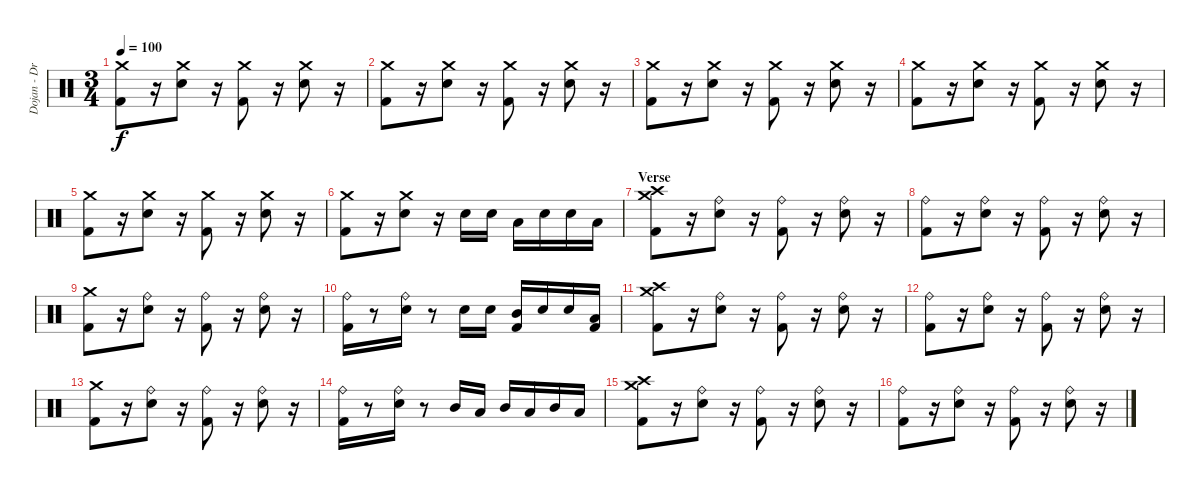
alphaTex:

\track ("Dojan - Drums" "Dojan - Dr") {instrument percussion}
\staff {score}
\articulation defaults
\ts (3 4)
\tempo 100
\clef neutral
\ks c
("Crash medium (hit)" "Kick (hit) 2").8{dy f} r.16 ("Crash medium (hit)" "Snare (hit) 2").8 r.16 ("Crash medium (hit)" "Kick (hit) 2").8 r.16 ("Crash medium (hit)" "Snare (hit) 2").8 r.16 |
("Crash medium (hit)" "Kick (hit) 2").8 r.16 ("Crash medium (hit)" "Snare (hit) 2").8 r.16 ("Crash medium (hit)" "Kick (hit) 2").8 r.16 ("Crash medium (hit)" "Snare (hit) 2").8 r.16 |
("Crash medium (hit)" "Kick (hit) 2").8 r.16 ("Crash medium (hit)" "Snare (hit) 2").8 r.16 ("Crash medium (hit)" "Kick (hit) 2").8 r.16 ("Crash medium (hit)" "Snare (hit) 2").8 r.16 |
("Crash medium (hit)" "Kick (hit) 2").8 r.16 ("Crash medium (hit)" "Snare (hit) 2").8 r.16 ("Crash medium (hit)" "Kick (hit) 2").8 r.16 ("Crash medium (hit)" "Snare (hit) 2").8 r.16 |
("Crash medium (hit)" "Kick (hit) 2").8 r.16 ("Crash medium (hit)" "Snare (hit) 2").8 r.16 ("Crash medium (hit)" "Kick (hit) 2").8 r.16 ("Crash medium (hit)" "Snare (hit) 2").8 r.16 |
("Crash medium (hit)" "Kick (hit) 2").8 r.16 ("Crash medium (hit)" "Snare (hit) 2").8 r.16 "Snare (hit) 2".16 "Snare (hit) 2".16 "Low Tom (hit)".16 "Snare (hit) 2".16 "Snare (hit) 2".16 "Low Tom (hit)".16 |
\section ("" "Verse")
("Crash high (hit)" "Crash medium (hit)" "Kick (hit) 2").8 r.16 ("Ride (bell)" "Snare (hit) 2").8 r.16 ("Ride (bell)" "Kick (hit) 2").8 r.16 ("Ride (bell)" "Snare (hit) 2").8 r.16 |
("Ride (bell)" "Kick (hit) 2").8 r.16 ("Ride (bell)" "Snare (hit) 2").8 r.16 ("Ride (bell)" "Kick (hit) 2").8 r.16 ("Ride (bell)" "Snare (hit) 2").8 r.16 |
("Crash medium (hit)" "Kick (hit) 2").8 r.16 ("Ride (bell)" "Snare (hit) 2").8 r.16 ("Ride (bell)" "Kick (hit) 2").8 r.16 ("Ride (bell)" "Snare (hit) 2").8 r.16 |
("Ride (bell)" "Kick (hit) 2").16 r.8 ("Ride (bell)" "Snare (hit) 2").16 r.8 "Snare (hit) 2".16 "Snare (hit) 2".16 ("Mid Tom (hit)" "Kick (hit) 2").16 "Snare (hit) 2".16 "Snare (hit) 2".16 ("Low Tom (hit)" "Kick (hit) 2").16 |
("Crash high (hit)" "Crash medium (hit)" "Kick (hit) 2").8 r.16 ("Ride (bell)" "Snare (hit) 2").8 r.16 ("Ride (bell)" "Kick (hit) 2").8 r.16 ("Ride (bell)" "Snare (hit) 2").8 r.16 |
("Ride (bell)" "Kick (hit) 2").8 r.16 ("Ride (bell)" "Snare (hit) 2").8 r.16 ("Ride (bell)" "Kick (hit) 2").8 r.16 ("Ride (bell)" "Snare (hit) 2").8 r.16 |
("Crash medium (hit)" "Kick (hit) 2").8 r.16 ("Ride (bell)" "Snare (hit) 2").8 r.16 ("Ride (bell)" "Kick (hit) 2").8 r.16 ("Ride (bell)" "Snare (hit) 2").8 r.16 |
("Ride (bell)" "Kick (hit) 2").16 r.8 ("Ride (bell)" "Snare (hit) 2").16 r.8 "Mid Tom (hit)".16 "Low Tom (hit)".16 "Mid Tom (hit)".16 "Low Tom (hit)".16 "Mid Tom (hit)".16 "Low Tom (hit)".16 |
("Crash high (hit)" "Crash medium (hit)" "Kick (hit) 2").8 r.16 ("Ride (bell)" "Snare (hit) 2").8 r.16 ("Ride (bell)" "Kick (hit) 2").8 r.16 ("Ride (bell)" "Snare (hit) 2").8 r.16 |
("Ride (bell)" "Kick (hit) 2").8 r.16 ("Ride (bell)" "Snare (hit) 2").8 r.16 ("Ride (bell)" "Kick (hit) 2").8 r.16 ("Ride (bell)" "Snare (hit) 2").8 r.16
